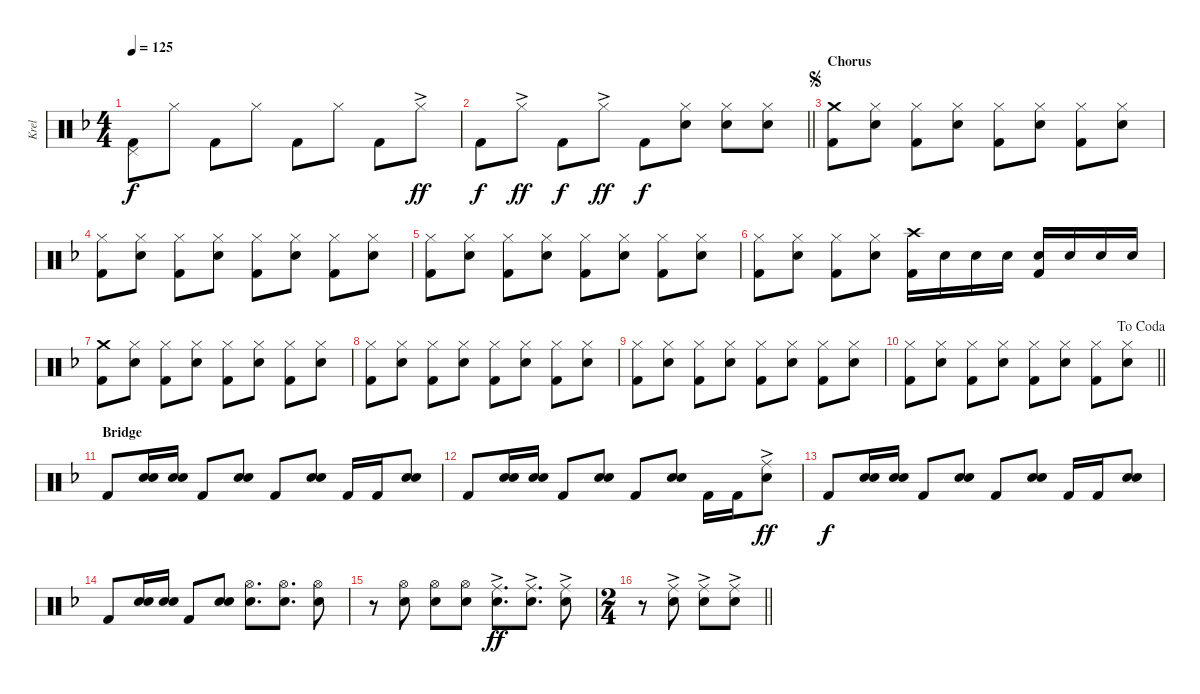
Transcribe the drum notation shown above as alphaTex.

\track ("Krel" "Krel") {instrument percussion}
\staff {score}
\articulation defaults
\ts (4 4)
\tempo 125
\clef neutral
\ks f
("Pedal Hi-Hat (hit)" "Kick (hit) 2").8{dy f} "Hi-Hat (closed)".8 "Kick (hit) 2".8 "Hi-Hat (closed)".8 "Kick (hit) 2".8 "Hi-Hat (closed)".8 "Kick (hit) 2".8 "Hi-Hat (closed)"{ac}.8{dy ff} |
\barLineRight lightlight "Kick (hit) 2".8{dy f} "Hi-Hat (closed)"{ac}.8{dy ff} "Kick (hit) 2".8{dy f} "Hi-Hat (closed)"{ac}.8{dy ff} "Kick (hit) 2".8{dy f}
("Hi-Hat (closed)" "Snare (hit) 2").8 ("Hi-Hat (closed)" "Snare (hit) 2").8 ("Hi-Hat (closed)" "Snare (hit) 2").8 |
\section ("" "Chorus")
\jump segno
("Crash medium (hit)" "Kick (hit) 2").8 ("Hi-Hat (closed)" "Snare (hit) 2").8 ("Hi-Hat (closed)" "Kick (hit) 2").8 ("Hi-Hat (closed)" "Snare (hit) 2").8 ("Hi-Hat (closed)" "Kick (hit) 2").8 ("Hi-Hat (closed)" "Snare (hit) 2").8 ("Hi-Hat (closed)" "Kick (hit) 2").8 ("Hi-Hat (closed)" "Snare (hit) 2").8 |
("Hi-Hat (closed)" "Kick (hit) 2").8 ("Hi-Hat (closed)" "Snare (hit) 2").8 ("Hi-Hat (closed)" "Kick (hit) 2").8 ("Hi-Hat (closed)" "Snare (hit) 2").8 ("Hi-Hat (closed)" "Kick (hit) 2").8 ("Hi-Hat (closed)" "Snare (hit) 2").8 ("Hi-Hat (closed)" "Kick (hit) 2").8 ("Hi-Hat (closed)" "Snare (hit) 2").8 |
("Hi-Hat (closed)" "Kick (hit) 2").8 ("Hi-Hat (closed)" "Snare (hit) 2").8 ("Hi-Hat (closed)" "Kick (hit) 2").8 ("Hi-Hat (closed)" "Snare (hit) 2").8 ("Hi-Hat (closed)" "Kick (hit) 2").8 ("Hi-Hat (closed)" "Snare (hit) 2").8 ("Hi-Hat (closed)" "Kick (hit) 2").8 ("Hi-Hat (closed)" "Snare (hit) 2").8 |
("Hi-Hat (closed)" "Kick (hit) 2").8 ("Hi-Hat (closed)" "Snare (hit) 2").8 ("Hi-Hat (closed)" "Kick (hit) 2").8 ("Hi-Hat (closed)" "Snare (hit) 2").8 ("Crash high (hit)" "Kick (hit) 2").16 "Snare (hit) 2".16 "Snare (hit) 2".16 "Snare (hit) 2".16 ("Snare (hit) 2" "Kick (hit) 2").16 "Snare (hit) 2".16 "Snare (hit) 2".16 "Snare (hit) 2".16 |
("Crash medium (hit)" "Kick (hit) 2").8 ("Hi-Hat (closed)" "Snare (hit) 2").8 ("Hi-Hat (closed)" "Kick (hit) 2").8 ("Hi-Hat (closed)" "Snare (hit) 2").8 ("Hi-Hat (closed)" "Kick (hit) 2").8 ("Hi-Hat (closed)" "Snare (hit) 2").8 ("Hi-Hat (closed)" "Kick (hit) 2").8 ("Hi-Hat (closed)" "Snare (hit) 2").8 |
("Hi-Hat (closed)" "Kick (hit) 2").8 ("Hi-Hat (closed)" "Snare (hit) 2").8 ("Hi-Hat (closed)" "Kick (hit) 2").8 ("Hi-Hat (closed)" "Snare (hit) 2").8 ("Hi-Hat (closed)" "Kick (hit) 2").8 ("Hi-Hat (closed)" "Snare (hit) 2").8 ("Hi-Hat (closed)" "Kick (hit) 2").8 ("Hi-Hat (closed)" "Snare (hit) 2").8 |
("Hi-Hat (closed)" "Kick (hit) 2").8 ("Hi-Hat (closed)" "Snare (hit) 2").8 ("Hi-Hat (closed)" "Kick (hit) 2").8 ("Hi-Hat (closed)" "Snare (hit) 2").8 ("Hi-Hat (closed)" "Kick (hit) 2").8 ("Hi-Hat (closed)" "Snare (hit) 2").8 ("Hi-Hat (closed)" "Kick (hit) 2").8 ("Hi-Hat (closed)" "Snare (hit) 2").8 |
\jump dacoda
\barLineRight lightlight
("Hi-Hat (closed)" "Kick (hit) 2").8 ("Hi-Hat (closed)" "Snare (hit) 2").8 ("Hi-Hat (closed)" "Kick (hit) 2").8 ("Hi-Hat (closed)" "Snare (hit) 2").8 ("Hi-Hat (closed)" "Kick (hit) 2").8 ("Hi-Hat (closed)" "Snare (hit) 2").8 ("Hi-Hat (closed)" "Kick (hit) 2").8 ("Hi-Hat (closed)" "Snare (hit) 2").8 |
\section ("" "Bridge")
"Kick (hit) 2".8 ("Snare (hit) 2" "Snare (hit) 2").16{bd 120} ("Snare (hit) 2" "Snare (hit) 2").16{bd 120} "Kick (hit) 2".8 ("Snare (hit) 2" "Snare (hit) 2").8{bd 120} "Kick (hit) 2".8 ("Snare (hit) 2" "Snare (hit) 2").8{bd 120} "Kick (hit) 2".16 "Kick (hit) 2".16 ("Snare (hit) 2" "Snare (hit) 2").8{bd 120} |
"Kick (hit) 2".8 ("Snare (hit) 2" "Snare (hit) 2").16{bd 120} ("Snare (hit) 2" "Snare (hit) 2").16{bd 120} "Kick (hit) 2".8 ("Snare (hit) 2" "Snare (hit) 2").8{bd 120} "Kick (hit) 2".8 ("Snare (hit) 2" "Snare (hit) 2").8{bd 120} "Kick (hit) 2".16 "Kick (hit) 2".16 ("Ride (middle)"{ac} "Snare (hit) 2").8{dy ff} |
"Kick (hit) 2".8{dy f} ("Snare (hit) 2" "Snare (hit) 2").16{bd 120} ("Snare (hit) 2" "Snare (hit) 2").16{bd 120} "Kick (hit) 2".8 ("Snare (hit) 2" "Snare (hit) 2").8{bd 120} "Kick (hit) 2".8 ("Snare (hit) 2" "Snare (hit) 2").8{bd 120} "Kick (hit) 2".16 "Kick (hit) 2".16 ("Snare (hit) 2" "Snare (hit) 2").8{bd 120} |
"Kick (hit) 2".8 ("Snare (hit) 2" "Snare (hit) 2").16{bd 120} ("Snare (hit) 2" "Snare (hit) 2").16{bd 120} "Kick (hit) 2".8 ("Snare (hit) 2" "Snare (hit) 2").8{bd 120} ("Hi-Hat (open)" "Snare (hit) 2").8{d} ("Hi-Hat (open)" "Snare (hit) 2").8{d} ("Hi-Hat (open)" "Snare (hit) 2").8 |
r.8 ("Hi-Hat (open)" "Snare (hit) 2").8 ("Hi-Hat (open)" "Snare (hit) 2").8 ("Hi-Hat (open)" "Snare (hit) 2").8 ("Ride (middle)"{ac} "Snare (hit) 2").8{d dy ff} ("Ride (middle)"{ac} "Snare (hit) 2").8{d} ("Ride (middle)"{ac} "Snare (hit) 2").8 |
\ts (2 4)
\barLineRight lightlight
r.8 ("Ride (middle)"{ac} "Snare (hit) 2").8 ("Ride (middle)"{ac} "Snare (hit) 2").8 ("Ride (middle)"{ac} "Snare (hit) 2").8
